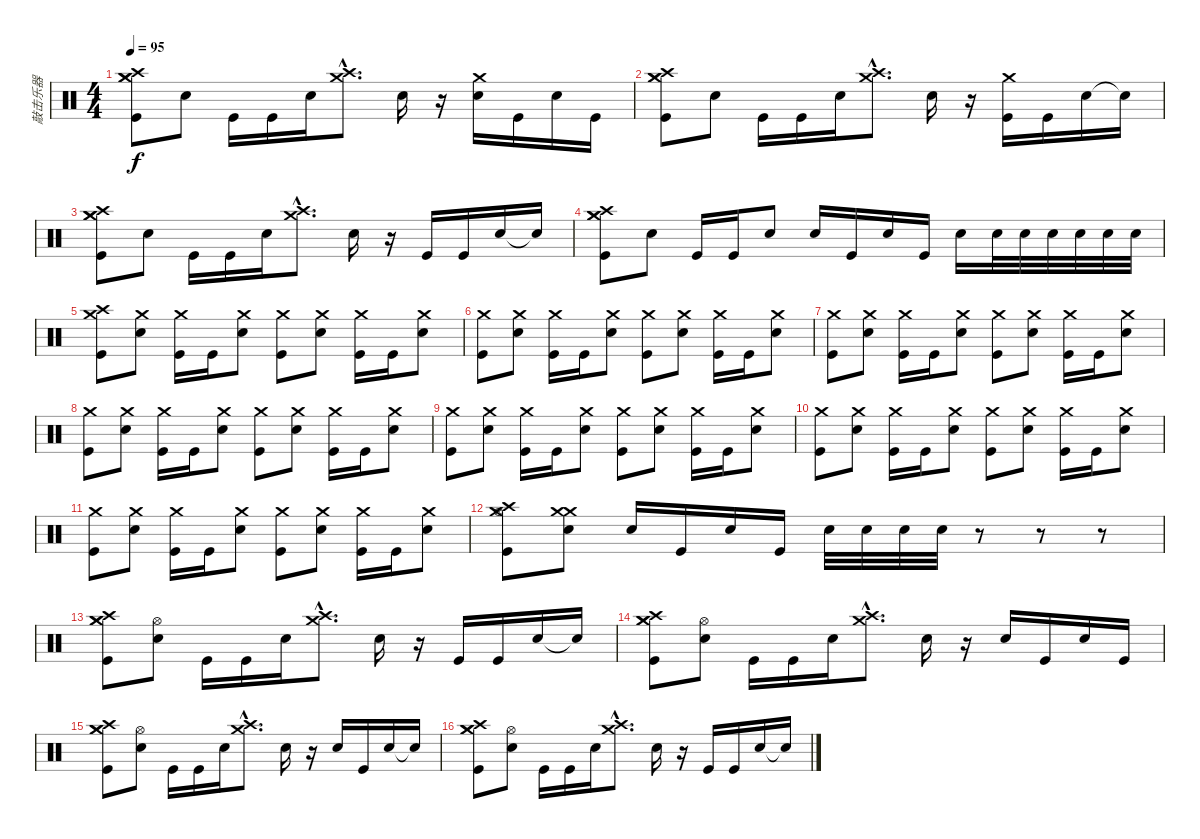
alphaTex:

\track ("敲击乐器" "敲击乐器") {instrument percussion}
\staff {score}
\articulation defaults
\ts (4 4)
\tempo 95
\clef neutral
\ks c
("Crash medium (hit)" "Crash medium (hit)" "Crash high (hit)" "Kick (hit)").8{dy f} "Electric Snare (hit)".8 "Kick (hit)".16 "Kick (hit)".16 "Electric Snare (hit)".16 ("Crash medium (hit)"{hac} "Crash high (hit)"{hac}).8{d} "Electric Snare (hit)".16 r.16 ("Crash medium (hit)" "Electric Snare (hit)").16 "Kick (hit)".16 "Electric Snare (hit)".16 "Kick (hit)".16 |
("Crash medium (hit)" "Crash medium (hit)" "Crash high (hit)" "Kick (hit)").8 "Electric Snare (hit)".8 "Kick (hit)".16 "Kick (hit)".16 "Electric Snare (hit)".16 ("Crash medium (hit)"{hac} "Crash high (hit)"{hac}).8{d} "Electric Snare (hit)".16 r.16 ("Crash medium (hit)" "Kick (hit)").16 "Kick (hit)".16 "Electric Snare (hit)".16 "Snare (hit)"{t}.16 |
("Crash medium (hit)" "Crash medium (hit)" "Crash high (hit)" "Kick (hit)").8 "Electric Snare (hit)".8 "Kick (hit)".16 "Kick (hit)".16 "Electric Snare (hit)".16 ("Crash medium (hit)"{hac} "Crash high (hit)"{hac}).8{d} "Electric Snare (hit)".16 r.16 "Kick (hit)".16 "Kick (hit)".16 "Electric Snare (hit)".16 "Snare (hit)"{t}.16 |
("Crash medium (hit)" "Crash medium (hit)" "Crash high (hit)" "Kick (hit)").8 "Electric Snare (hit)".8 "Kick (hit)".16 "Kick (hit)".16 "Electric Snare (hit)".8 "Electric Snare (hit)".16 "Kick (hit)".16 "Electric Snare (hit)".16 "Kick (hit)".16 "Electric Snare (hit)".16 "Electric Snare (hit)".32 "Electric Snare (hit)".32 "Electric Snare (hit)".32 "Electric Snare (hit)".32 "Electric Snare (hit)".32 "Electric Snare (hit)".32 |
("Crash high (hit)" "Crash medium (hit)" "Kick (hit)").8 ("Crash medium (hit)" "Electric Snare (hit)").8 ("Crash medium (hit)" "Kick (hit)").16 "Kick (hit)".16 ("Crash medium (hit)" "Electric Snare (hit)").8 ("Crash medium (hit)" "Kick (hit)").8 ("Crash medium (hit)" "Electric Snare (hit)").8 ("Crash medium (hit)" "Kick (hit)").16 "Kick (hit)".16 ("Crash medium (hit)" "Electric Snare (hit)").8 |
("Crash medium (hit)" "Kick (hit)").8 ("Crash medium (hit)" "Electric Snare (hit)").8 ("Crash medium (hit)" "Kick (hit)").16 "Kick (hit)".16 ("Crash medium (hit)" "Electric Snare (hit)").8 ("Crash medium (hit)" "Kick (hit)").8 ("Crash medium (hit)" "Electric Snare (hit)").8 ("Crash medium (hit)" "Kick (hit)").16 "Kick (hit)".16 ("Crash medium (hit)" "Electric Snare (hit)").8 |
("Crash medium (hit)" "Kick (hit)").8 ("Crash medium (hit)" "Electric Snare (hit)").8 ("Crash medium (hit)" "Kick (hit)").16 "Kick (hit)".16 ("Crash medium (hit)" "Electric Snare (hit)").8 ("Crash medium (hit)" "Kick (hit)").8 ("Crash medium (hit)" "Electric Snare (hit)").8 ("Crash medium (hit)" "Kick (hit)").16 "Kick (hit)".16 ("Crash medium (hit)" "Electric Snare (hit)").8 |
("Crash medium (hit)" "Kick (hit)").8 ("Crash medium (hit)" "Electric Snare (hit)").8 ("Crash medium (hit)" "Kick (hit)").16 "Kick (hit)".16 ("Crash medium (hit)" "Electric Snare (hit)").8 ("Crash medium (hit)" "Kick (hit)").8 ("Crash medium (hit)" "Electric Snare (hit)").8 ("Crash medium (hit)" "Kick (hit)").16 "Kick (hit)".16 ("Crash medium (hit)" "Electric Snare (hit)").8 |
("Crash medium (hit)" "Kick (hit)").8 ("Crash medium (hit)" "Electric Snare (hit)").8 ("Crash medium (hit)" "Kick (hit)").16 "Kick (hit)".16 ("Crash medium (hit)" "Electric Snare (hit)").8 ("Crash medium (hit)" "Kick (hit)").8 ("Crash medium (hit)" "Electric Snare (hit)").8 ("Crash medium (hit)" "Kick (hit)").16 "Kick (hit)".16 ("Crash medium (hit)" "Electric Snare (hit)").8 |
("Crash medium (hit)" "Kick (hit)").8 ("Crash medium (hit)" "Electric Snare (hit)").8 ("Crash medium (hit)" "Kick (hit)").16 "Kick (hit)".16 ("Crash medium (hit)" "Electric Snare (hit)").8 ("Crash medium (hit)" "Kick (hit)").8 ("Crash medium (hit)" "Electric Snare (hit)").8 ("Crash medium (hit)" "Kick (hit)").16 "Kick (hit)".16 ("Crash medium (hit)" "Electric Snare (hit)").8 |
("Crash medium (hit)" "Kick (hit)").8 ("Crash medium (hit)" "Electric Snare (hit)").8 ("Crash medium (hit)" "Kick (hit)").16 "Kick (hit)".16 ("Crash medium (hit)" "Electric Snare (hit)").8 ("Crash medium (hit)" "Kick (hit)").8 ("Crash medium (hit)" "Electric Snare (hit)").8 ("Crash medium (hit)" "Kick (hit)").16 "Kick (hit)".16 ("Crash medium (hit)" "Electric Snare (hit)").8 |
("Crash medium (hit)" "Crash high (hit)" "Hi-Hat (open)" "Kick (hit)").8 ("Crash medium (hit)" "Crash medium (hit)" "Electric Snare (hit)").8 "Electric Snare (hit)".16 "Kick (hit)".16 "Electric Snare (hit)".16 "Kick (hit)".16 "Electric Snare (hit)".32 "Electric Snare (hit)".32 "Electric Snare (hit)".32 "Electric Snare (hit)".32 r.8 r.8 r.8 |
("Crash medium (hit)" "Crash medium (hit)" "Crash high (hit)" "Kick (hit)").8 ("Hi-Hat (open)" "Electric Snare (hit)").8 "Kick (hit)".16 "Kick (hit)".16 "Electric Snare (hit)".16 ("Crash medium (hit)"{hac} "Crash high (hit)"{hac}).8{d} "Electric Snare (hit)".16 r.16 "Kick (hit)".16 "Kick (hit)".16 "Electric Snare (hit)".16 "Snare (hit)"{t}.16 |
("Crash medium (hit)" "Crash medium (hit)" "Crash high (hit)" "Kick (hit)").8 ("Hi-Hat (open)" "Electric Snare (hit)").8 "Kick (hit)".16 "Kick (hit)".16 "Electric Snare (hit)".16 ("Crash medium (hit)"{hac} "Crash high (hit)"{hac}).8{d} "Electric Snare (hit)".16 r.16 "Electric Snare (hit)".16 "Kick (hit)".16 "Electric Snare (hit)".16 "Kick (hit)".16 |
("Crash medium (hit)" "Crash medium (hit)" "Crash high (hit)" "Kick (hit)").8 ("Hi-Hat (open)" "Electric Snare (hit)").8 "Kick (hit)".16 "Kick (hit)".16 "Electric Snare (hit)".16 ("Crash medium (hit)"{hac} "Crash high (hit)"{hac}).8{d} "Electric Snare (hit)".16 r.16 "Electric Snare (hit)".16 "Kick (hit)".16 "Electric Snare (hit)".16 "Snare (hit)"{t}.16 |
("Crash medium (hit)" "Crash medium (hit)" "Crash high (hit)" "Kick (hit)").8 ("Hi-Hat (open)" "Electric Snare (hit)").8 "Kick (hit)".16 "Kick (hit)".16 "Electric Snare (hit)".16 ("Crash medium (hit)"{hac} "Crash high (hit)"{hac}).8{d} "Electric Snare (hit)".16 r.16 "Kick (hit)".16 "Kick (hit)".16 "Electric Snare (hit)".16 "Snare (hit)"{t}.16
